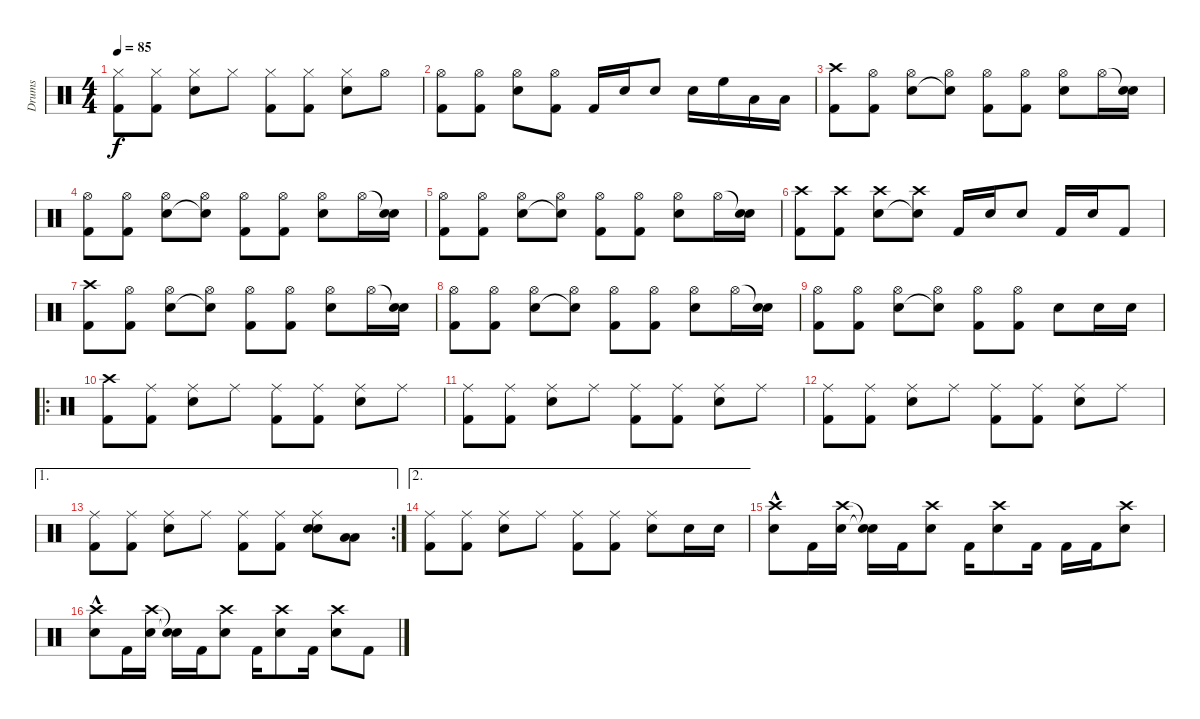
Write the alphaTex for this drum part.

\track ("Drums" "Drums") {instrument percussion}
\staff {score}
\articulation defaults
\ts (4 4)
\tempo 85
\clef neutral
\ks c
("Hi-Hat (closed)" "Kick (hit) 2").8{dy f} ("Hi-Hat (closed)" "Kick (hit) 2").8 ("Hi-Hat (closed)" "Snare (hit) 2").8 "Hi-Hat (closed)".8 ("Hi-Hat (closed)" "Kick (hit) 2").8 ("Hi-Hat (closed)" "Kick (hit) 2").8 ("Hi-Hat (closed)" "Snare (hit) 2").8 "Hi-Hat (open)".8 |
("Hi-Hat (open)" "Kick (hit) 2").8 ("Hi-Hat (open)" "Kick (hit) 2").8 ("Hi-Hat (open)" "Snare (hit) 2").8 ("Hi-Hat (open)" "Kick (hit) 2").8 "Kick (hit) 2".16 "Snare (hit) 2".16 "Snare (hit) 2".8 "Snare (hit) 2".16 "High Floor Tom (hit)".16 "Low Tom (hit)".16 "Low Floor Tom (hit)".16 |
("Crash high (hit)" "Kick (hit) 2").8 ("Hi-Hat (open)" "Kick (hit) 2").8 ("Hi-Hat (open)" "Snare (hit) 2").8 ("Hi-Hat (open)" "Snare (hit)"{t}).8 ("Hi-Hat (open)" "Kick (hit) 2").8 ("Hi-Hat (open)" "Kick (hit) 2").8 ("Hi-Hat (open)" "Snare (hit) 2").8 "Hi-Hat (open)".16 ("Snare (hit)"{t} "Snare (hit) 2").16 |
("Hi-Hat (open)" "Kick (hit) 2").8 ("Hi-Hat (open)" "Kick (hit) 2").8 ("Hi-Hat (open)" "Snare (hit) 2").8 ("Hi-Hat (open)" "Snare (hit)"{t}).8 ("Hi-Hat (open)" "Kick (hit) 2").8 ("Hi-Hat (open)" "Kick (hit) 2").8 ("Hi-Hat (open)" "Snare (hit) 2").8 "Hi-Hat (open)".16 ("Snare (hit)"{t} "Snare (hit) 2").16 |
("Hi-Hat (open)" "Kick (hit) 2").8 ("Hi-Hat (open)" "Kick (hit) 2").8 ("Hi-Hat (open)" "Snare (hit) 2").8 ("Hi-Hat (open)" "Snare (hit)"{t}).8 ("Hi-Hat (open)" "Kick (hit) 2").8 ("Hi-Hat (open)" "Kick (hit) 2").8 ("Hi-Hat (open)" "Snare (hit) 2").8 "Hi-Hat (open)".16 ("Snare (hit)"{t} "Snare (hit) 2").16 |
("Crash high (hit)" "Kick (hit) 2").8 ("Crash high (hit)" "Kick (hit) 2").8 ("Crash high (hit)" "Snare (hit) 2").8 ("Crash high (hit)" "Snare (hit)"{t}).8 "Kick (hit) 2".16 "Snare (hit) 2".16 "Snare (hit) 2".8 "Kick (hit) 2".16 "Snare (hit) 2".16 "Kick (hit) 2".8 |
("Crash high (hit)" "Kick (hit) 2").8 ("Hi-Hat (open)" "Kick (hit) 2").8 ("Hi-Hat (open)" "Snare (hit) 2").8 ("Hi-Hat (open)" "Snare (hit)"{t}).8 ("Hi-Hat (open)" "Kick (hit) 2").8 ("Hi-Hat (open)" "Kick (hit) 2").8 ("Hi-Hat (open)" "Snare (hit) 2").8 "Hi-Hat (open)".16 ("Snare (hit)"{t} "Snare (hit) 2").16 |
("Hi-Hat (open)" "Kick (hit) 2").8 ("Hi-Hat (open)" "Kick (hit) 2").8 ("Hi-Hat (open)" "Snare (hit) 2").8 ("Hi-Hat (open)" "Snare (hit)"{t}).8 ("Hi-Hat (open)" "Kick (hit) 2").8 ("Hi-Hat (open)" "Kick (hit) 2").8 ("Hi-Hat (open)" "Snare (hit) 2").8 "Hi-Hat (open)".16 ("Snare (hit)"{t} "Snare (hit) 2").16 |
("Hi-Hat (open)" "Kick (hit) 2").8 ("Hi-Hat (open)" "Kick (hit) 2").8 ("Hi-Hat (open)" "Snare (hit) 2").8 ("Hi-Hat (open)" "Snare (hit)"{t}).8 ("Hi-Hat (open)" "Kick (hit) 2").8 ("Hi-Hat (open)" "Kick (hit) 2").8 "Snare (hit) 2".8 "Snare (hit) 2".16 "Snare (hit) 2".16 |
\ro
("Crash high (hit)" "Kick (hit) 2").8 ("Ride (middle)" "Kick (hit) 2").8 ("Ride (middle)" "Snare (hit) 2").8 "Ride (middle)".8 ("Ride (middle)" "Kick (hit) 2").8 ("Ride (middle)" "Kick (hit) 2").8 ("Ride (middle)" "Snare (hit) 2").8 "Ride (middle)".8 |
("Ride (middle)" "Kick (hit) 2").8 ("Ride (middle)" "Kick (hit) 2").8 ("Ride (middle)" "Snare (hit) 2").8 "Ride (middle)".8 ("Ride (middle)" "Kick (hit) 2").8 ("Ride (middle)" "Kick (hit) 2").8 ("Ride (middle)" "Snare (hit) 2").8 "Ride (middle)".8 |
("Ride (middle)" "Kick (hit) 2").8 ("Ride (middle)" "Kick (hit) 2").8 ("Ride (middle)" "Snare (hit) 2").8 "Ride (middle)".8 ("Ride (middle)" "Kick (hit) 2").8 ("Ride (middle)" "Kick (hit) 2").8 ("Ride (middle)" "Snare (hit) 2").8 "Ride (middle)".8 |
\ae 1
\rc 2
("Ride (middle)" "Kick (hit) 2").8 ("Ride (middle)" "Kick (hit) 2").8 ("Ride (middle)" "Snare (hit) 2").8 "Ride (middle)".8 ("Ride (middle)" "Kick (hit) 2").8 ("Ride (middle)" "Kick (hit) 2").8 ("Ride (middle)" "Snare (hit) 2" "Snare (hit) 2").8 ("Low Floor Tom (hit)" "Low Floor Tom (hit)").8 |
\ae 2
("Ride (middle)" "Kick (hit) 2").8 ("Ride (middle)" "Kick (hit) 2").8 ("Ride (middle)" "Snare (hit) 2").8 "Ride (middle)".8 ("Ride (middle)" "Kick (hit) 2").8 ("Ride (middle)" "Kick (hit) 2").8 ("Ride (middle)" "Snare (hit) 2").8 "Snare (hit) 2".16 "Snare (hit) 2".16 |
("Crash high (hit)" "Snare (hit) 2"{hac}).8 "Kick (hit) 2".16 ("Crash high (hit)" "Snare (hit) 2").16 ("Snare (hit)"{t} "Snare (hit)"{t}).16 "Kick (hit) 2".16 ("Crash high (hit)" "Snare (hit) 2").8 "Kick (hit) 2".16 ("Crash high (hit)" "Snare (hit) 2").8 "Kick (hit) 2".16 "Kick (hit) 2".16 "Kick (hit) 2".16 ("Crash high (hit)" "Snare (hit) 2").8 |
("Crash high (hit)" "Snare (hit) 2"{hac}).8 "Kick (hit) 2".16 ("Crash high (hit)" "Snare (hit) 2").16 ("Snare (hit)"{t} "Snare (hit)"{t}).16 "Kick (hit) 2".16 ("Crash high (hit)" "Snare (hit) 2").8 "Kick (hit) 2".16 ("Crash high (hit)" "Snare (hit) 2").8 "Kick (hit) 2".16 ("Crash high (hit)" "Snare (hit) 2").8 "Kick (hit) 2".8
